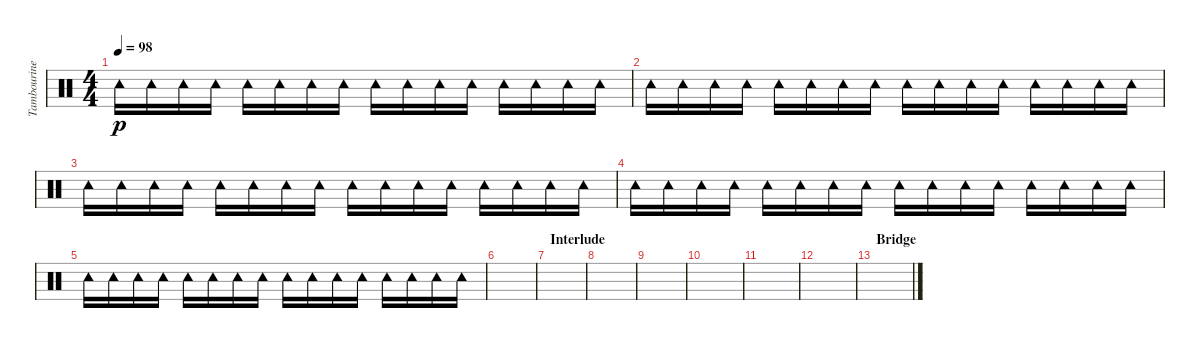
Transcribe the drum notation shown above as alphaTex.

\track ("Tambourine" "Tambourine") {instrument percussion}
\staff {score}
\articulation defaults
\ts (4 4)
\tempo 98
\clef neutral
\ks c "Tambourine (hit)".16{dy p} "Tambourine (hit)".16 "Tambourine (hit)".16 "Tambourine (hit)".16 "Tambourine (hit)".16 "Tambourine (hit)".16 "Tambourine (hit)".16 "Tambourine (hit)".16 "Tambourine (hit)".16 "Tambourine (hit)".16 "Tambourine (hit)".16 "Tambourine (hit)".16 "Tambourine (hit)".16 "Tambourine (hit)".16 "Tambourine (hit)".16 "Tambourine (hit)".16
|
"Tambourine (hit)".16 "Tambourine (hit)".16 "Tambourine (hit)".16 "Tambourine (hit)".16 "Tambourine (hit)".16 "Tambourine (hit)".16 "Tambourine (hit)".16 "Tambourine (hit)".16 "Tambourine (hit)".16 "Tambourine (hit)".16 "Tambourine (hit)".16 "Tambourine (hit)".16 "Tambourine (hit)".16 "Tambourine (hit)".16 "Tambourine (hit)".16 "Tambourine (hit)".16 |
"Tambourine (hit)".16 "Tambourine (hit)".16 "Tambourine (hit)".16 "Tambourine (hit)".16 "Tambourine (hit)".16 "Tambourine (hit)".16 "Tambourine (hit)".16 "Tambourine (hit)".16 "Tambourine (hit)".16 "Tambourine (hit)".16 "Tambourine (hit)".16 "Tambourine (hit)".16 "Tambourine (hit)".16 "Tambourine (hit)".16 "Tambourine (hit)".16 "Tambourine (hit)".16 |
"Tambourine (hit)".16 "Tambourine (hit)".16 "Tambourine (hit)".16 "Tambourine (hit)".16 "Tambourine (hit)".16 "Tambourine (hit)".16 "Tambourine (hit)".16 "Tambourine (hit)".16 "Tambourine (hit)".16 "Tambourine (hit)".16 "Tambourine (hit)".16 "Tambourine (hit)".16 "Tambourine (hit)".16 "Tambourine (hit)".16 "Tambourine (hit)".16 "Tambourine (hit)".16 |
"Tambourine (hit)".16 "Tambourine (hit)".16 "Tambourine (hit)".16 "Tambourine (hit)".16 "Tambourine (hit)".16 "Tambourine (hit)".16 "Tambourine (hit)".16 "Tambourine (hit)".16 "Tambourine (hit)".16 "Tambourine (hit)".16 "Tambourine (hit)".16 "Tambourine (hit)".16 "Tambourine (hit)".16 "Tambourine (hit)".16 "Tambourine (hit)".16 "Tambourine (hit)".16 |
|
\section ("" "Interlude")
|
|
|
|
|
|
\section ("" "Bridge")
